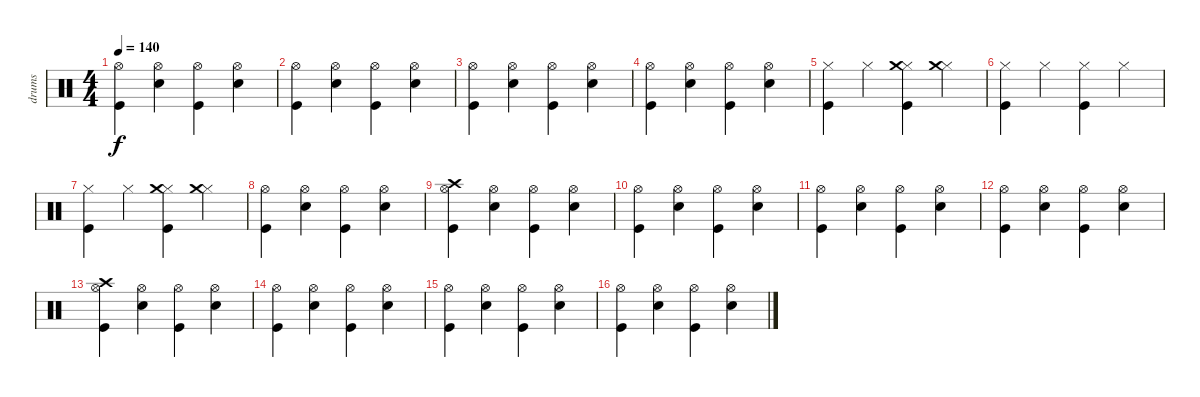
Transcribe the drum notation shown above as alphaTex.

\track ("drums" "drums") {instrument percussion}
\staff {score}
\articulation defaults
\ts (4 4)
\tempo 140
\clef neutral
\ks c
("Hi-Hat (open)" "Kick (hit)").4{dy f} ("Hi-Hat (open)" "Snare (hit) 2").4 ("Hi-Hat (open)" "Kick (hit)").4 ("Hi-Hat (open)" "Snare (hit) 2").4 |
("Hi-Hat (open)" "Kick (hit)").4 ("Hi-Hat (open)" "Snare (hit) 2").4 ("Hi-Hat (open)" "Kick (hit)").4 ("Hi-Hat (open)" "Snare (hit) 2").4 |
("Hi-Hat (open)" "Kick (hit)").4 ("Hi-Hat (open)" "Snare (hit) 2").4 ("Hi-Hat (open)" "Kick (hit)").4 ("Hi-Hat (open)" "Snare (hit) 2").4 |
("Hi-Hat (open)" "Kick (hit)").4 ("Hi-Hat (open)" "Snare (hit) 2").4 ("Hi-Hat (open)" "Kick (hit)").4 ("Hi-Hat (open)" "Snare (hit) 2").4 |
("Hi-Hat (closed)" "Kick (hit)").4 "Hi-Hat (closed)".4 ("Hi-Hat (closed)" "Kick (hit)" "Crash medium (hit)").4 ("Hi-Hat (closed)" "Crash medium (hit)").4 |
("Hi-Hat (closed)" "Kick (hit)").4 "Hi-Hat (closed)".4 ("Hi-Hat (closed)" "Kick (hit)").4 "Hi-Hat (closed)".4 |
("Hi-Hat (closed)" "Kick (hit)").4 "Hi-Hat (closed)".4 ("Hi-Hat (closed)" "Kick (hit)" "Crash medium (hit)").4 ("Hi-Hat (closed)" "Crash medium (hit)").4 |
("Hi-Hat (open)" "Kick (hit)").4 ("Hi-Hat (open)" "Snare (hit) 2").4 ("Hi-Hat (open)" "Kick (hit)").4 ("Hi-Hat (open)" "Snare (hit) 2").4 |
("Hi-Hat (open)" "Kick (hit)" "Crash high (hit)").4 ("Hi-Hat (open)" "Snare (hit) 2").4 ("Hi-Hat (open)" "Kick (hit)").4 ("Hi-Hat (open)" "Snare (hit) 2").4 |
("Hi-Hat (open)" "Kick (hit)").4 ("Hi-Hat (open)" "Snare (hit) 2").4 ("Hi-Hat (open)" "Kick (hit)").4 ("Hi-Hat (open)" "Snare (hit) 2").4 |
("Hi-Hat (open)" "Kick (hit)").4 ("Hi-Hat (open)" "Snare (hit) 2").4 ("Hi-Hat (open)" "Kick (hit)").4 ("Hi-Hat (open)" "Snare (hit) 2").4 |
("Hi-Hat (open)" "Kick (hit)").4 ("Hi-Hat (open)" "Snare (hit) 2").4 ("Hi-Hat (open)" "Kick (hit)").4 ("Hi-Hat (open)" "Snare (hit) 2").4 |
("Hi-Hat (open)" "Kick (hit)" "Crash high (hit)").4 ("Hi-Hat (open)" "Snare (hit) 2").4 ("Hi-Hat (open)" "Kick (hit)").4 ("Hi-Hat (open)" "Snare (hit) 2").4 |
("Hi-Hat (open)" "Kick (hit)").4 ("Hi-Hat (open)" "Snare (hit) 2").4 ("Hi-Hat (open)" "Kick (hit)").4 ("Hi-Hat (open)" "Snare (hit) 2").4 |
("Hi-Hat (open)" "Kick (hit)").4 ("Hi-Hat (open)" "Snare (hit) 2").4 ("Hi-Hat (open)" "Kick (hit)").4 ("Hi-Hat (open)" "Snare (hit) 2").4 |
("Hi-Hat (open)" "Kick (hit)").4 ("Hi-Hat (open)" "Snare (hit) 2").4 ("Hi-Hat (open)" "Kick (hit)").4 ("Hi-Hat (open)" "Snare (hit) 2").4
